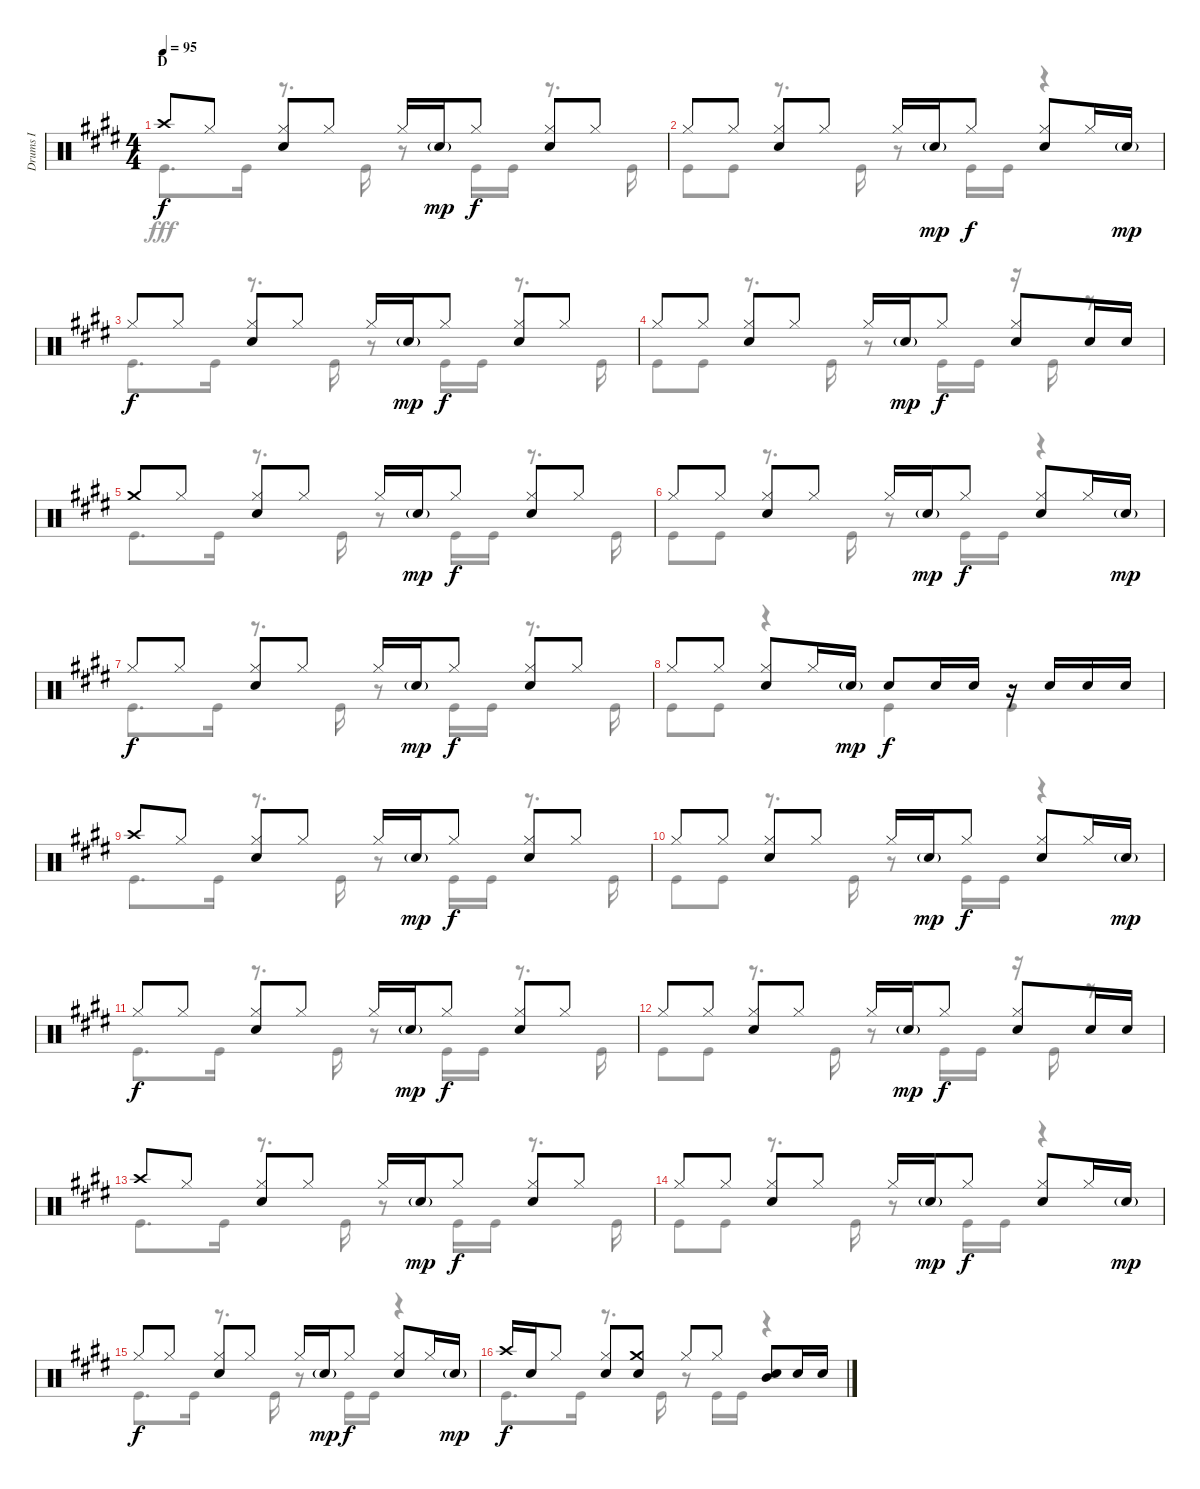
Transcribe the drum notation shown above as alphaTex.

\track ("Drums I" "Drums I") {instrument percussion}
\staff {score}
\articulation defaults
\voice
\ts (4 4)
\section ("" "D")
\tempo 95
\clef neutral
\ks e "Crash high (hit)".8{dy f} "Hi-Hat (closed)".8
("Hi-Hat (closed)" "Snare (hit) 2").8 "Hi-Hat (closed)".8 "Hi-Hat (closed)".16 "Snare (hit) 2"{g}.16{dy mp} "Hi-Hat (closed)".8{dy f} ("Hi-Hat (closed)" "Snare (hit) 2").8 "Hi-Hat (closed)".8 |
"Hi-Hat (closed)".8 "Hi-Hat (closed)".8 ("Hi-Hat (closed)" "Snare (hit) 2").8 "Hi-Hat (closed)".8 "Hi-Hat (closed)".16 "Snare (hit) 2"{g}.16{dy mp} "Hi-Hat (closed)".8{dy f} ("Hi-Hat (closed)" "Snare (hit) 2").8 "Hi-Hat (closed)".16 "Snare (hit) 2"{g}.16{dy mp} |
"Hi-Hat (closed)".8{dy f} "Hi-Hat (closed)".8 ("Hi-Hat (closed)" "Snare (hit) 2").8 "Hi-Hat (closed)".8 "Hi-Hat (closed)".16 "Snare (hit) 2"{g}.16{dy mp} "Hi-Hat (closed)".8{dy f} ("Hi-Hat (closed)" "Snare (hit) 2").8 "Hi-Hat (closed)".8 |
"Hi-Hat (closed)".8 "Hi-Hat (closed)".8 ("Hi-Hat (closed)" "Snare (hit) 2").8 "Hi-Hat (closed)".8 "Hi-Hat (closed)".16 "Snare (hit) 2"{g}.16{dy mp} "Hi-Hat (closed)".8{dy f} ("Hi-Hat (closed)" "Snare (hit) 2").8 "Snare (hit) 2".16 "Snare (hit) 2".16 |
"Crash medium (hit)".8 "Hi-Hat (closed)".8 ("Hi-Hat (closed)" "Snare (hit) 2").8 "Hi-Hat (closed)".8 "Hi-Hat (closed)".16 "Snare (hit) 2"{g}.16{dy mp} "Hi-Hat (closed)".8{dy f} ("Hi-Hat (closed)" "Snare (hit) 2").8 "Hi-Hat (closed)".8 |
"Hi-Hat (closed)".8 "Hi-Hat (closed)".8 ("Hi-Hat (closed)" "Snare (hit) 2").8 "Hi-Hat (closed)".8 "Hi-Hat (closed)".16 "Snare (hit) 2"{g}.16{dy mp} "Hi-Hat (closed)".8{dy f} ("Hi-Hat (closed)" "Snare (hit) 2").8 "Hi-Hat (closed)".16 "Snare (hit) 2"{g}.16{dy mp} |
"Hi-Hat (closed)".8{dy f} "Hi-Hat (closed)".8 ("Hi-Hat (closed)" "Snare (hit) 2").8 "Hi-Hat (closed)".8 "Hi-Hat (closed)".16 "Snare (hit) 2"{g}.16{dy mp} "Hi-Hat (closed)".8{dy f} ("Hi-Hat (closed)" "Snare (hit) 2").8 "Hi-Hat (closed)".8 |
"Hi-Hat (closed)".8 "Hi-Hat (closed)".8 ("Hi-Hat (closed)" "Snare (hit) 2").8 "Hi-Hat (closed)".16 "Snare (hit) 2"{g}.16{dy mp} "Snare (hit) 2".8{dy f} "Snare (hit) 2".16 "Snare (hit) 2".16 r.16 "Snare (hit) 2".16 "Snare (hit) 2".16 "Snare (hit) 2".16 |
"Crash high (hit)".8 "Hi-Hat (closed)".8 ("Hi-Hat (closed)" "Snare (hit) 2").8 "Hi-Hat (closed)".8 "Hi-Hat (closed)".16 "Snare (hit) 2"{g}.16{dy mp} "Hi-Hat (closed)".8{dy f} ("Hi-Hat (closed)" "Snare (hit) 2").8 "Hi-Hat (closed)".8 |
"Hi-Hat (closed)".8 "Hi-Hat (closed)".8 ("Hi-Hat (closed)" "Snare (hit) 2").8 "Hi-Hat (closed)".8 "Hi-Hat (closed)".16 "Snare (hit) 2"{g}.16{dy mp} "Hi-Hat (closed)".8{dy f} ("Hi-Hat (closed)" "Snare (hit) 2").8 "Hi-Hat (closed)".16 "Snare (hit) 2"{g}.16{dy mp} |
"Hi-Hat (closed)".8{dy f} "Hi-Hat (closed)".8 ("Hi-Hat (closed)" "Snare (hit) 2").8 "Hi-Hat (closed)".8 "Hi-Hat (closed)".16 "Snare (hit) 2"{g}.16{dy mp} "Hi-Hat (closed)".8{dy f} ("Hi-Hat (closed)" "Snare (hit) 2").8 "Hi-Hat (closed)".8 |
"Hi-Hat (closed)".8 "Hi-Hat (closed)".8 ("Hi-Hat (closed)" "Snare (hit) 2").8 "Hi-Hat (closed)".8 "Hi-Hat (closed)".16 "Snare (hit) 2"{g}.16{dy mp} "Hi-Hat (closed)".8{dy f} ("Hi-Hat (closed)" "Snare (hit) 2").8 "Snare (hit) 2".16 "Snare (hit) 2".16 |
"Crash high (hit)".8 "Hi-Hat (closed)".8 ("Hi-Hat (closed)" "Snare (hit) 2").8 "Hi-Hat (closed)".8 "Hi-Hat (closed)".16 "Snare (hit) 2"{g}.16{dy mp} "Hi-Hat (closed)".8{dy f} ("Hi-Hat (closed)" "Snare (hit) 2").8 "Hi-Hat (closed)".8 |
"Hi-Hat (closed)".8 "Hi-Hat (closed)".8 ("Hi-Hat (closed)" "Snare (hit) 2").8 "Hi-Hat (closed)".8 "Hi-Hat (closed)".16 "Snare (hit) 2"{g}.16{dy mp} "Hi-Hat (closed)".8{dy f} ("Hi-Hat (closed)" "Snare (hit) 2").8 "Hi-Hat (closed)".16 "Snare (hit) 2"{g}.16{dy mp} |
"Hi-Hat (closed)".8{dy f} "Hi-Hat (closed)".8 ("Hi-Hat (closed)" "Snare (hit) 2").8 "Hi-Hat (closed)".8 "Hi-Hat (closed)".16 "Snare (hit) 2"{g}.16{dy mp} "Hi-Hat (closed)".8{dy f} ("Hi-Hat (closed)" "Snare (hit) 2").8 "Hi-Hat (closed)".16 "Snare (hit) 2"{g}.16{dy mp} |
"Crash high (hit)".16{dy f} "Snare (hit) 2".16 "Hi-Hat (closed)".8 ("Hi-Hat (closed)" "Snare (hit) 2").8 ("Crash medium (hit)" "Snare (hit) 2").8 "Hi-Hat (closed)".8 "Hi-Hat (closed)".8 ("Mid Tom (hit)" "Snare (hit) 2").8 "Snare (hit) 2".16 "Snare (hit) 2".16
\voice
\clef neutral
\ottava regular
\simile none
\ks e "Kick (hit)".8{d dy fff} "Kick (hit)".16
r.8{d} "Kick (hit)".16 r.8 "Kick (hit)".16 "Kick (hit)".16 r.8{d} "Kick (hit)".16 |
"Kick (hit)".8 "Kick (hit)".8 r.8{d} "Kick (hit)".16 r.8 "Kick (hit)".16 "Kick (hit)".16 r.4 |
"Kick (hit)".8{d} "Kick (hit)".16 r.8{d} "Kick (hit)".16 r.8 "Kick (hit)".16 "Kick (hit)".16 r.8{d} "Kick (hit)".16 |
"Kick (hit)".8 "Kick (hit)".8 r.8{d} "Kick (hit)".16 r.8 "Kick (hit)".16 "Kick (hit)".16 r.16 "Kick (hit)".16 r.8 |
"Kick (hit)".8{d} "Kick (hit)".16 r.8{d} "Kick (hit)".16 r.8 "Kick (hit)".16 "Kick (hit)".16 r.8{d} "Kick (hit)".16 |
"Kick (hit)".8 "Kick (hit)".8 r.8{d} "Kick (hit)".16 r.8 "Kick (hit)".16 "Kick (hit)".16 r.4 |
"Kick (hit)".8{d} "Kick (hit)".16 r.8{d} "Kick (hit)".16 r.8 "Kick (hit)".16 "Kick (hit)".16 r.8{d} "Kick (hit)".16 |
"Kick (hit)".8 "Kick (hit)".8 r.4 "Kick (hit)".4 "Kick (hit)".4 |
"Kick (hit)".8{d} "Kick (hit)".16 r.8{d} "Kick (hit)".16 r.8 "Kick (hit)".16 "Kick (hit)".16 r.8{d} "Kick (hit)".16 |
"Kick (hit)".8 "Kick (hit)".8 r.8{d} "Kick (hit)".16 r.8 "Kick (hit)".16 "Kick (hit)".16 r.4 |
"Kick (hit)".8{d} "Kick (hit)".16 r.8{d} "Kick (hit)".16 r.8 "Kick (hit)".16 "Kick (hit)".16 r.8{d} "Kick (hit)".16 |
"Kick (hit)".8 "Kick (hit)".8 r.8{d} "Kick (hit)".16 r.8 "Kick (hit)".16 "Kick (hit)".16 r.16 "Kick (hit)".16 r.8 |
"Kick (hit)".8{d} "Kick (hit)".16 r.8{d} "Kick (hit)".16 r.8 "Kick (hit)".16 "Kick (hit)".16 r.8{d} "Kick (hit)".16 |
"Kick (hit)".8 "Kick (hit)".8 r.8{d} "Kick (hit)".16 r.8 "Kick (hit)".16 "Kick (hit)".16 r.4 |
"Kick (hit)".8{d} "Kick (hit)".16 r.8{d} "Kick (hit)".16 r.8 "Kick (hit)".16 "Kick (hit)".16 r.4 |
"Kick (hit)".8{d} "Kick (hit)".16 r.8{d} "Kick (hit)".16 r.8 "Kick (hit)".16 "Kick (hit)".16 r.4
